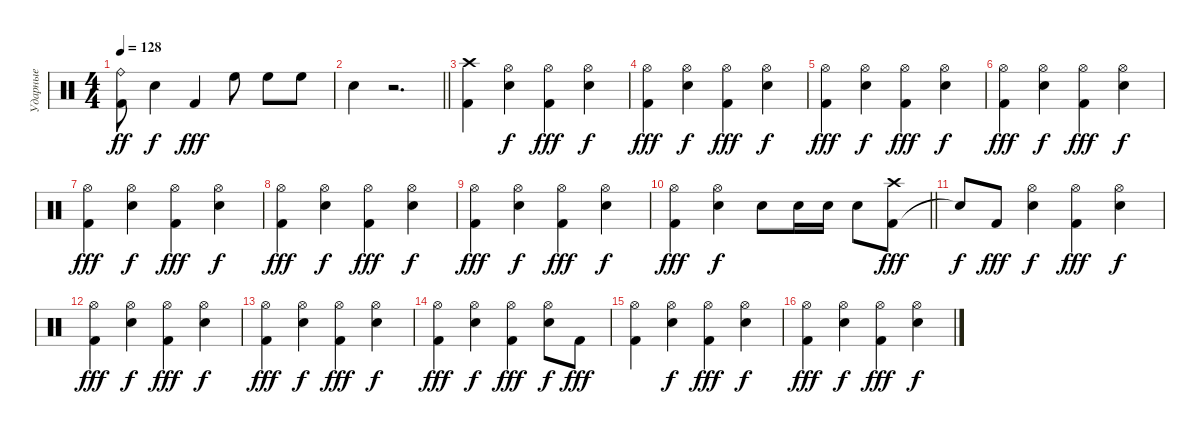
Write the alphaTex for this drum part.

\track ("Ударные" "Ударные") {instrument percussion}
\staff {score}
\articulation defaults
\ts (4 4)
\tempo 128
\clef neutral
\ks c
("Kick (hit) 2" "Ride (bell)").8{dy ff} "Snare (hit) 2".4{dy f} "Kick (hit) 2".4{dy fff} "High Floor Tom (hit)".8 "High Floor Tom (hit)".8 "High Floor Tom (hit)".8 |
\barLineRight lightlight "Snare (hit) 2".4
r.2{d} |
("Kick (hit) 2" "Crash high (hit)").4 ("Snare (hit) 2" "Hi-Hat (open)").4{dy f} ("Kick (hit) 2" "Hi-Hat (open)").4{dy fff} ("Snare (hit) 2" "Hi-Hat (open)").4{dy f} |
("Kick (hit) 2" "Hi-Hat (open)").4{dy fff} ("Snare (hit) 2" "Hi-Hat (open)").4{dy f} ("Kick (hit) 2" "Hi-Hat (open)").4{dy fff} ("Snare (hit) 2" "Hi-Hat (open)").4{dy f} |
("Kick (hit) 2" "Hi-Hat (open)").4{dy fff} ("Snare (hit) 2" "Hi-Hat (open)").4{dy f} ("Kick (hit) 2" "Hi-Hat (open)").4{dy fff} ("Snare (hit) 2" "Hi-Hat (open)").4{dy f} |
("Kick (hit) 2" "Hi-Hat (open)").4{dy fff} ("Snare (hit) 2" "Hi-Hat (open)").4{dy f} ("Kick (hit) 2" "Hi-Hat (open)").4{dy fff} ("Snare (hit) 2" "Hi-Hat (open)").4{dy f} |
("Kick (hit) 2" "Hi-Hat (open)").4{dy fff} ("Snare (hit) 2" "Hi-Hat (open)").4{dy f} ("Kick (hit) 2" "Hi-Hat (open)").4{dy fff} ("Snare (hit) 2" "Hi-Hat (open)").4{dy f} |
("Kick (hit) 2" "Hi-Hat (open)").4{dy fff} ("Snare (hit) 2" "Hi-Hat (open)").4{dy f} ("Kick (hit) 2" "Hi-Hat (open)").4{dy fff} ("Snare (hit) 2" "Hi-Hat (open)").4{dy f} |
("Kick (hit) 2" "Hi-Hat (open)").4{dy fff} ("Snare (hit) 2" "Hi-Hat (open)").4{dy f} ("Kick (hit) 2" "Hi-Hat (open)").4{dy fff} ("Snare (hit) 2" "Hi-Hat (open)").4{dy f} |
\barLineRight lightlight
("Kick (hit) 2" "Hi-Hat (open)").4{dy fff} ("Snare (hit) 2" "Hi-Hat (open)").4{dy f} "Snare (hit) 2".8 "Snare (hit) 2".16 "Snare (hit) 2".16 "Snare (hit) 2".8 ("Kick (hit) 2" "Crash high (hit)").8{dy fff} |
"Snare (hit)"{t}.8{dy f} "Kick (hit) 2".8{dy fff} ("Snare (hit) 2" "Hi-Hat (open)").4{dy f} ("Kick (hit) 2" "Hi-Hat (open)").4{dy fff} ("Snare (hit) 2" "Hi-Hat (open)").4{dy f} |
("Kick (hit) 2" "Hi-Hat (open)").4{dy fff} ("Snare (hit) 2" "Hi-Hat (open)").4{dy f} ("Kick (hit) 2" "Hi-Hat (open)").4{dy fff} ("Snare (hit) 2" "Hi-Hat (open)").4{dy f} |
("Kick (hit) 2" "Hi-Hat (open)").4{dy fff} ("Snare (hit) 2" "Hi-Hat (open)").4{dy f} ("Kick (hit) 2" "Hi-Hat (open)").4{dy fff} ("Snare (hit) 2" "Hi-Hat (open)").4{dy f} |
("Kick (hit) 2" "Hi-Hat (open)").4{dy fff} ("Snare (hit) 2" "Hi-Hat (open)").4{dy f} ("Kick (hit) 2" "Hi-Hat (open)").4{dy fff} ("Snare (hit) 2" "Hi-Hat (open)").8{dy f} "Kick (hit) 2".8{dy fff} |
("Kick (hit) 2" "Hi-Hat (open)").4 ("Snare (hit) 2" "Hi-Hat (open)").4{dy f} ("Kick (hit) 2" "Hi-Hat (open)").4{dy fff} ("Snare (hit) 2" "Hi-Hat (open)").4{dy f} |
("Kick (hit) 2" "Hi-Hat (open)").4{dy fff} ("Snare (hit) 2" "Hi-Hat (open)").4{dy f} ("Kick (hit) 2" "Hi-Hat (open)").4{dy fff} ("Snare (hit) 2" "Hi-Hat (open)").4{dy f}
